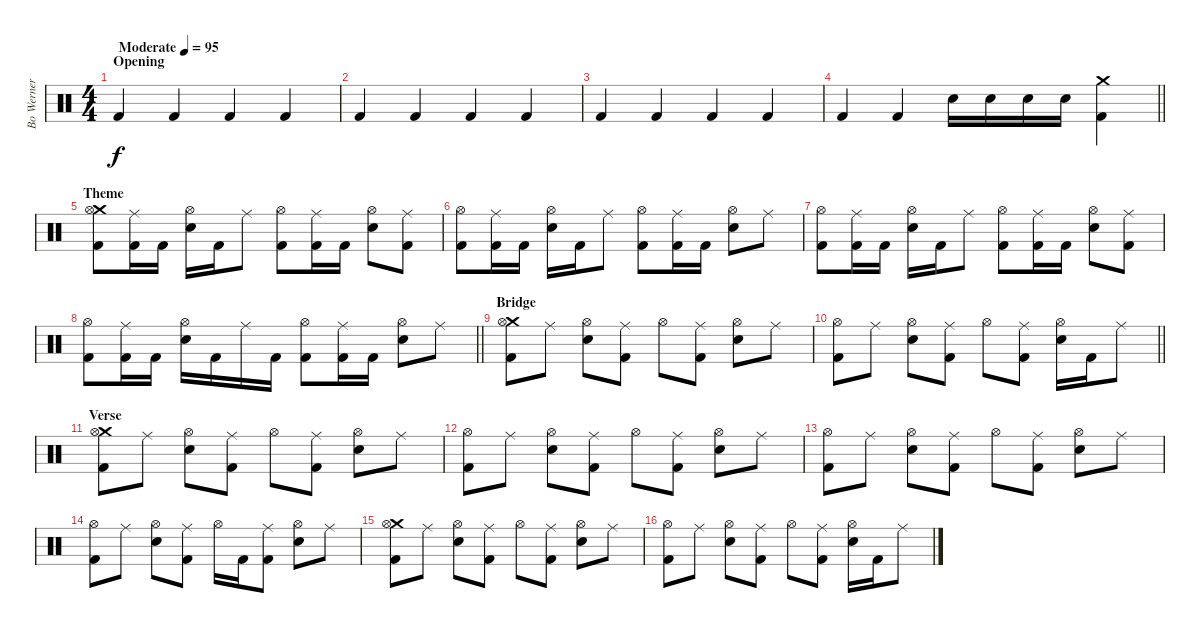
\track ("Bo Werner" "Bo Werner") {instrument percussion}
\staff {score}
\articulation defaults
\ts (4 4)
\section ("" "Opening")
\tempo (95 "Moderate")
\clef neutral
\ks c "Kick (hit) 2".4{dy f} "Kick (hit) 2".4 "Kick (hit) 2".4 "Kick (hit) 2".4
|
"Kick (hit) 2".4 "Kick (hit) 2".4 "Kick (hit) 2".4 "Kick (hit) 2".4 |
"Kick (hit) 2".4 "Kick (hit) 2".4 "Kick (hit) 2".4 "Kick (hit) 2".4 |
\barLineRight lightlight "Kick (hit) 2".4 "Kick (hit) 2".4 "Snare (hit) 2".16 "Snare (hit) 2".16 "Snare (hit) 2".16 "Snare (hit) 2".16
("Crash medium (hit)" "Kick (hit) 2").4 |
\section ("" "Theme")
("Crash medium (hit)" "Hi-Hat (open)" "Kick (hit) 2").8 ("Ride (middle)" "Kick (hit) 2").16 "Kick (hit) 2".16 ("Hi-Hat (open)" "Snare (hit) 2").16 "Kick (hit) 2".16 "Ride (middle)".8 ("Hi-Hat (open)" "Kick (hit) 2").8 ("Ride (middle)" "Kick (hit) 2").16 "Kick (hit) 2".16 ("Hi-Hat (open)" "Snare (hit) 2").8 ("Ride (middle)" "Kick (hit) 2").8 |
("Hi-Hat (open)" "Kick (hit) 2").8 ("Ride (middle)" "Kick (hit) 2").16 "Kick (hit) 2".16 ("Hi-Hat (open)" "Snare (hit) 2").16 "Kick (hit) 2".16 "Ride (middle)".8 ("Hi-Hat (open)" "Kick (hit) 2").8 ("Ride (middle)" "Kick (hit) 2").16 "Kick (hit) 2".16 ("Hi-Hat (open)" "Snare (hit) 2").8 "Ride (middle)".8 |
("Hi-Hat (open)" "Kick (hit) 2").8 ("Ride (middle)" "Kick (hit) 2").16 "Kick (hit) 2".16 ("Hi-Hat (open)" "Snare (hit) 2").16 "Kick (hit) 2".16 "Ride (middle)".8 ("Hi-Hat (open)" "Kick (hit) 2").8 ("Ride (middle)" "Kick (hit) 2").16 "Kick (hit) 2".16 ("Hi-Hat (open)" "Snare (hit) 2").8 ("Ride (middle)" "Kick (hit) 2").8 |
\barLineRight lightlight
("Hi-Hat (open)" "Kick (hit) 2").8 ("Ride (middle)" "Kick (hit) 2").16 "Kick (hit) 2".16 ("Hi-Hat (open)" "Snare (hit) 2").16 "Kick (hit) 2".16 "Ride (middle)".16 "Kick (hit) 2".16 ("Hi-Hat (open)" "Kick (hit) 2").8 ("Ride (middle)" "Kick (hit) 2").16 "Kick (hit) 2".16 ("Hi-Hat (open)" "Snare (hit) 2").8 "Ride (middle)".8 |
\section ("" "Bridge")
("Crash medium (hit)" "Hi-Hat (open)" "Kick (hit) 2").8 "Ride (middle)".8 ("Hi-Hat (open)" "Snare (hit) 2").8 ("Ride (middle)" "Kick (hit) 2").8 "Hi-Hat (open)".8 ("Ride (middle)" "Kick (hit) 2").8 ("Hi-Hat (open)" "Snare (hit) 2").8 "Ride (middle)".8 |
\barLineRight lightlight
("Hi-Hat (open)" "Kick (hit) 2").8 "Ride (middle)".8 ("Hi-Hat (open)" "Snare (hit) 2").8 ("Ride (middle)" "Kick (hit) 2").8 "Hi-Hat (open)".8 ("Ride (middle)" "Kick (hit) 2").8 ("Hi-Hat (open)" "Snare (hit) 2").16 "Kick (hit) 2".16 "Ride (middle)".8 |
\section ("" "Verse")
("Crash medium (hit)" "Hi-Hat (open)" "Kick (hit) 2").8 "Ride (middle)".8 ("Hi-Hat (open)" "Snare (hit) 2").8 ("Ride (middle)" "Kick (hit) 2").8 "Hi-Hat (open)".8 ("Ride (middle)" "Kick (hit) 2").8 ("Hi-Hat (open)" "Snare (hit) 2").8 "Ride (middle)".8 |
("Hi-Hat (open)" "Kick (hit) 2").8 "Ride (middle)".8 ("Hi-Hat (open)" "Snare (hit) 2").8 ("Ride (middle)" "Kick (hit) 2").8 "Hi-Hat (open)".8 ("Ride (middle)" "Kick (hit) 2").8 ("Hi-Hat (open)" "Snare (hit) 2").8 "Ride (middle)".8 |
("Hi-Hat (open)" "Kick (hit) 2").8 "Ride (middle)".8 ("Hi-Hat (open)" "Snare (hit) 2").8 ("Ride (middle)" "Kick (hit) 2").8 "Hi-Hat (open)".8 ("Ride (middle)" "Kick (hit) 2").8 ("Hi-Hat (open)" "Snare (hit) 2").8 "Ride (middle)".8 |
("Hi-Hat (open)" "Kick (hit) 2").8 "Ride (middle)".8 ("Hi-Hat (open)" "Snare (hit) 2").8 ("Ride (middle)" "Kick (hit) 2").8 "Hi-Hat (open)".16 "Kick (hit) 2".16 ("Ride (middle)" "Kick (hit) 2").8 ("Hi-Hat (open)" "Snare (hit) 2").8 "Ride (middle)".8 |
("Crash medium (hit)" "Hi-Hat (open)" "Kick (hit) 2").8 "Ride (middle)".8 ("Hi-Hat (open)" "Snare (hit) 2").8 ("Ride (middle)" "Kick (hit) 2").8 "Hi-Hat (open)".8 ("Ride (middle)" "Kick (hit) 2").8 ("Hi-Hat (open)" "Snare (hit) 2").8 "Ride (middle)".8 |
("Hi-Hat (open)" "Kick (hit) 2").8 "Ride (middle)".8 ("Hi-Hat (open)" "Snare (hit) 2").8 ("Ride (middle)" "Kick (hit) 2").8 "Hi-Hat (open)".8 ("Ride (middle)" "Kick (hit) 2").8 ("Hi-Hat (open)" "Snare (hit) 2").16 "Kick (hit) 2".16 "Ride (middle)".8
